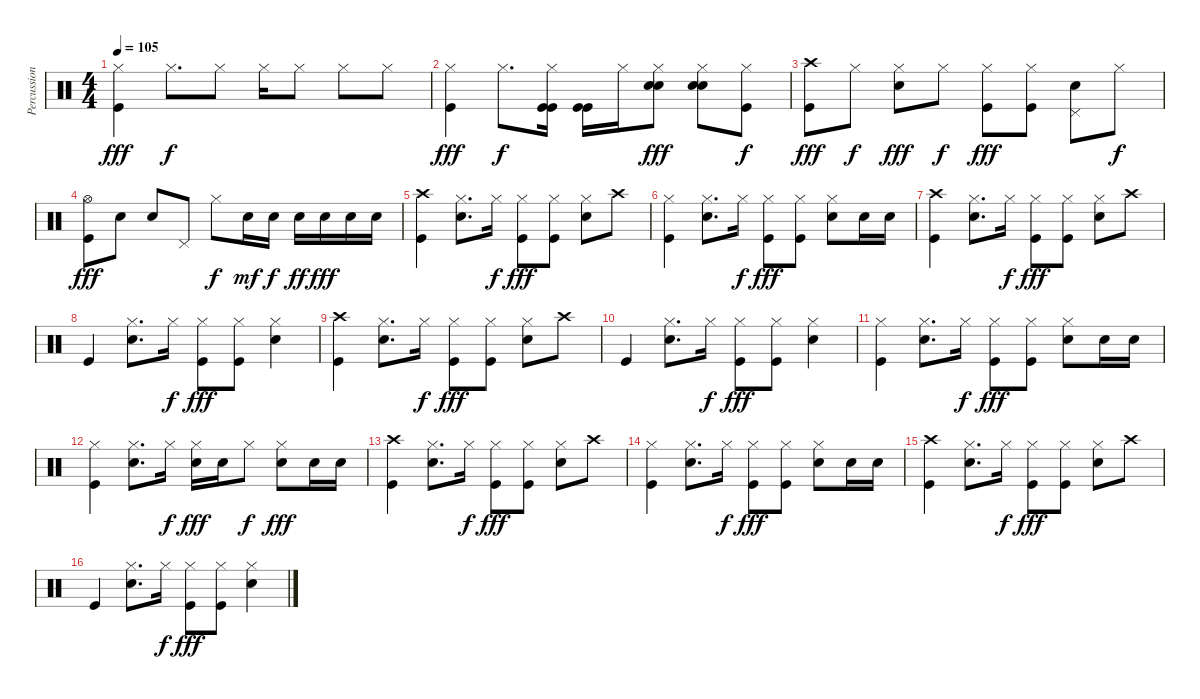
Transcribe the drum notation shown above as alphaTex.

\track ("Percussion" "Percussion") {instrument percussion}
\staff {score}
\articulation defaults
\ts (4 4)
\tempo 105
\clef neutral
\ks c
("Hi-Hat (closed)" "Kick (hit)").4{dy fff} "Hi-Hat (closed)".8{d dy f} "Hi-Hat (closed)".8 "Hi-Hat (closed)".16 "Hi-Hat (closed)".8 "Hi-Hat (closed)".8 "Hi-Hat (closed)".8 |
("Hi-Hat (closed)" "Kick (hit)").4{dy fff} "Hi-Hat (closed)".8{d dy f} ("Hi-Hat (closed)" "Kick (hit)" "Kick (hit)").16 ("Kick (hit)" "Kick (hit)").16 "Hi-Hat (closed)".16 ("Hi-Hat (closed)" "Electric Snare (hit)" "Electric Snare (hit)").8{dy fff} ("Hi-Hat (closed)" "Electric Snare (hit)" "Electric Snare (hit)").8 ("Hi-Hat (closed)" "Kick (hit)").8{dy f} |
("Crash high (hit)" "Kick (hit)").8{dy fff} "Hi-Hat (closed)".8{dy f} ("Hi-Hat (closed)" "Electric Snare (hit)").8{dy fff} "Hi-Hat (closed)".8{dy f} ("Hi-Hat (closed)" "Kick (hit)").8{dy fff} ("Hi-Hat (closed)" "Kick (hit)").8 ("Pedal Hi-Hat (hit)" "Electric Snare (hit)").8 "Hi-Hat (closed)".8{dy f} |
("Hi-Hat (open)" "Kick (hit)").8{dy fff} "Electric Snare (hit)".8 "Electric Snare (hit)".8 "Pedal Hi-Hat (hit)".8 "Hi-Hat (closed)".8{dy f} "Electric Snare (hit)".16{dy mf} "Electric Snare (hit)".16{dy f} "Electric Snare (hit)".16{dy ff} "Electric Snare (hit)".16{dy fff} "Electric Snare (hit)".16 "Electric Snare (hit)".16 |
("Crash high (hit)" "Kick (hit)").4 ("Hi-Hat (closed)" "Electric Snare (hit)").8{d} "Hi-Hat (closed)".16{dy f} ("Hi-Hat (closed)" "Kick (hit)").8{dy fff} ("Hi-Hat (closed)" "Kick (hit)").8 ("Hi-Hat (closed)" "Electric Snare (hit)").8 "Crash high (hit)".8 |
("Hi-Hat (closed)" "Kick (hit)").4 ("Hi-Hat (closed)" "Electric Snare (hit)").8{d} "Hi-Hat (closed)".16{dy f} ("Hi-Hat (closed)" "Kick (hit)").8{dy fff} ("Hi-Hat (closed)" "Kick (hit)").8 ("Hi-Hat (closed)" "Electric Snare (hit)").8 "Electric Snare (hit)".16 "Electric Snare (hit)".16 |
("Crash high (hit)" "Kick (hit)").4 ("Hi-Hat (closed)" "Electric Snare (hit)").8{d} "Hi-Hat (closed)".16{dy f} ("Hi-Hat (closed)" "Kick (hit)").8{dy fff} ("Hi-Hat (closed)" "Kick (hit)").8 ("Hi-Hat (closed)" "Electric Snare (hit)").8 "Crash high (hit)".8 |
"Kick (hit)".4 ("Hi-Hat (closed)" "Electric Snare (hit)").8{d} "Hi-Hat (closed)".16{dy f} ("Hi-Hat (closed)" "Kick (hit)").8{dy fff} ("Hi-Hat (closed)" "Kick (hit)").8 ("Hi-Hat (closed)" "Electric Snare (hit)").4 |
("Crash high (hit)" "Kick (hit)").4 ("Hi-Hat (closed)" "Electric Snare (hit)").8{d} "Hi-Hat (closed)".16{dy f} ("Hi-Hat (closed)" "Kick (hit)").8{dy fff} ("Hi-Hat (closed)" "Kick (hit)").8 ("Hi-Hat (closed)" "Electric Snare (hit)").8 "Crash high (hit)".8 |
"Kick (hit)".4 ("Hi-Hat (closed)" "Electric Snare (hit)").8{d} "Hi-Hat (closed)".16{dy f} ("Hi-Hat (closed)" "Kick (hit)").8{dy fff} ("Hi-Hat (closed)" "Kick (hit)").8 ("Hi-Hat (closed)" "Electric Snare (hit)").4 |
("Hi-Hat (closed)" "Kick (hit)").4 ("Hi-Hat (closed)" "Electric Snare (hit)").8{d} "Hi-Hat (closed)".16{dy f} ("Hi-Hat (closed)" "Kick (hit)").8{dy fff} ("Hi-Hat (closed)" "Kick (hit)").8 ("Hi-Hat (closed)" "Electric Snare (hit)").8 "Electric Snare (hit)".16 "Electric Snare (hit)".16 |
("Hi-Hat (closed)" "Kick (hit)").4 ("Hi-Hat (closed)" "Electric Snare (hit)").8{d} "Hi-Hat (closed)".16{dy f} ("Hi-Hat (closed)" "Electric Snare (hit)").16{dy fff} "Electric Snare (hit)".16 "Hi-Hat (closed)".8{dy f} ("Hi-Hat (closed)" "Electric Snare (hit)").8{dy fff} "Electric Snare (hit)".16 "Electric Snare (hit)".16 |
("Crash high (hit)" "Kick (hit)").4 ("Hi-Hat (closed)" "Electric Snare (hit)").8{d} "Hi-Hat (closed)".16{dy f} ("Hi-Hat (closed)" "Kick (hit)").8{dy fff} ("Hi-Hat (closed)" "Kick (hit)").8 ("Hi-Hat (closed)" "Electric Snare (hit)").8 "Crash high (hit)".8 |
("Hi-Hat (closed)" "Kick (hit)").4 ("Hi-Hat (closed)" "Electric Snare (hit)").8{d} "Hi-Hat (closed)".16{dy f} ("Hi-Hat (closed)" "Kick (hit)").8{dy fff} ("Hi-Hat (closed)" "Kick (hit)").8 ("Hi-Hat (closed)" "Electric Snare (hit)").8 "Electric Snare (hit)".16 "Electric Snare (hit)".16 |
("Crash high (hit)" "Kick (hit)").4 ("Hi-Hat (closed)" "Electric Snare (hit)").8{d} "Hi-Hat (closed)".16{dy f} ("Hi-Hat (closed)" "Kick (hit)").8{dy fff} ("Hi-Hat (closed)" "Kick (hit)").8 ("Hi-Hat (closed)" "Electric Snare (hit)").8 "Crash high (hit)".8 |
"Kick (hit)".4 ("Hi-Hat (closed)" "Electric Snare (hit)").8{d} "Hi-Hat (closed)".16{dy f} ("Hi-Hat (closed)" "Kick (hit)").8{dy fff} ("Hi-Hat (closed)" "Kick (hit)").8 ("Hi-Hat (closed)" "Electric Snare (hit)").4
